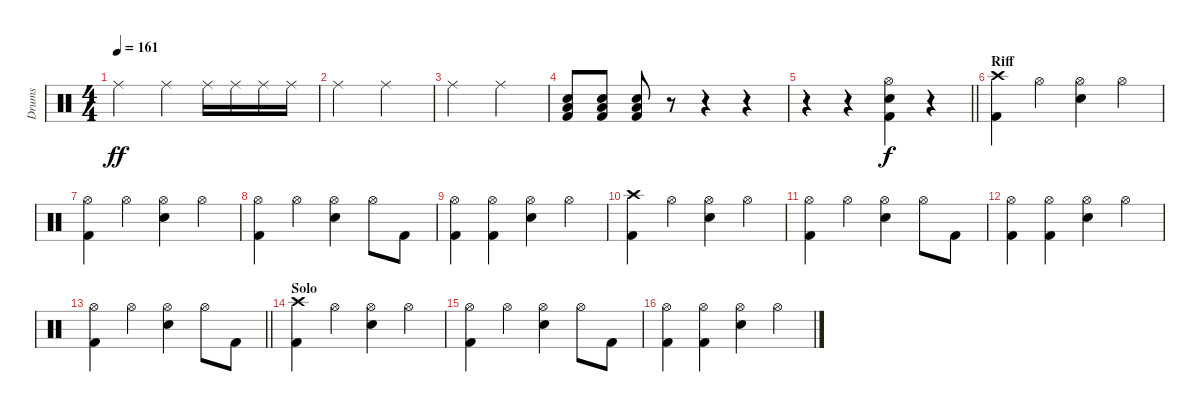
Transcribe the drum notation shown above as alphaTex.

\track ("Drums" "Drums") {instrument percussion}
\staff {score}
\articulation defaults
\ts (4 4)
\tempo 161
\clef neutral
\ks c "Ride (middle)".2{dy ff} "Ride (middle)".4 "Ride (middle)".16 "Ride (middle)".16 "Ride (middle)".16 "Ride (middle)".16
|
"Ride (middle)".2 "Ride (middle)".2 |
"Ride (middle)".2 "Ride (middle)".2 |
("Snare (hit) 2" "Low Tom (hit)" "Kick (hit) 2").8 ("Snare (hit) 2" "Low Tom (hit)" "Kick (hit) 2").8 ("Snare (hit) 2" "Low Tom (hit)" "Kick (hit) 2").8 r.8 r.4 r.4 |
\barLineRight lightlight
r.4 r.4 ("Hi-Hat (open)" "Snare (hit) 2" "Kick (hit) 2").4{dy f} r.4 |
\section ("" "Riff")
("Crash high (hit)" "Kick (hit) 2").4 "Hi-Hat (open)".4 ("Hi-Hat (open)" "Snare (hit) 2").4 "Hi-Hat (open)".4 |
("Hi-Hat (open)" "Kick (hit) 2").4 "Hi-Hat (open)".4 ("Hi-Hat (open)" "Snare (hit) 2").4 "Hi-Hat (open)".4 |
("Hi-Hat (open)" "Kick (hit) 2").4 "Hi-Hat (open)".4 ("Hi-Hat (open)" "Snare (hit) 2").4 "Hi-Hat (open)".8 "Kick (hit) 2".8 |
("Hi-Hat (open)" "Kick (hit) 2").4 ("Hi-Hat (open)" "Kick (hit) 2").4 ("Hi-Hat (open)" "Snare (hit) 2").4 "Hi-Hat (open)".4 |
("Crash high (hit)" "Kick (hit) 2").4 "Hi-Hat (open)".4 ("Hi-Hat (open)" "Snare (hit) 2").4 "Hi-Hat (open)".4 |
("Hi-Hat (open)" "Kick (hit) 2").4 "Hi-Hat (open)".4 ("Hi-Hat (open)" "Snare (hit) 2").4 "Hi-Hat (open)".8 "Kick (hit) 2".8 |
("Hi-Hat (open)" "Kick (hit) 2").4 ("Hi-Hat (open)" "Kick (hit) 2").4 ("Hi-Hat (open)" "Snare (hit) 2").4 "Hi-Hat (open)".4 |
\barLineRight lightlight
("Hi-Hat (open)" "Kick (hit) 2").4 "Hi-Hat (open)".4 ("Hi-Hat (open)" "Snare (hit) 2").4 "Hi-Hat (open)".8 "Kick (hit) 2".8 |
\section ("" "Solo")
("Crash high (hit)" "Kick (hit) 2").4 "Hi-Hat (open)".4 ("Hi-Hat (open)" "Snare (hit) 2").4 "Hi-Hat (open)".4 |
("Hi-Hat (open)" "Kick (hit) 2").4 "Hi-Hat (open)".4 ("Hi-Hat (open)" "Snare (hit) 2").4 "Hi-Hat (open)".8 "Kick (hit) 2".8 |
("Hi-Hat (open)" "Kick (hit) 2").4 ("Hi-Hat (open)" "Kick (hit) 2").4 ("Hi-Hat (open)" "Snare (hit) 2").4 "Hi-Hat (open)".4
